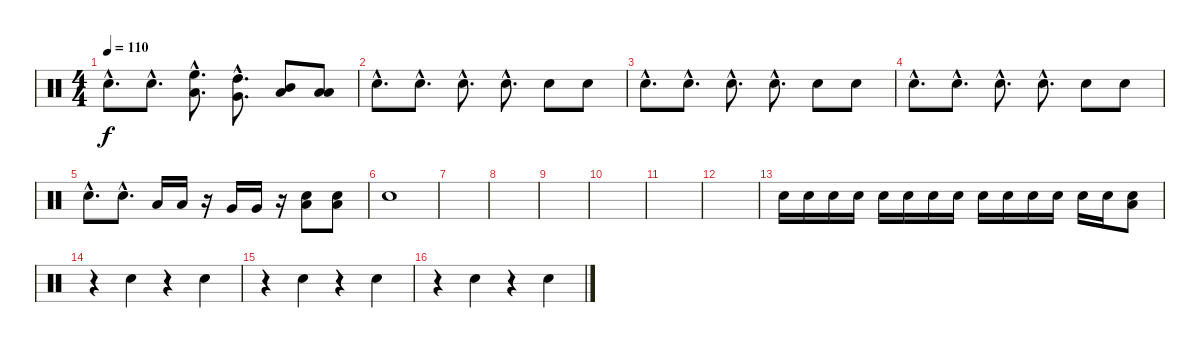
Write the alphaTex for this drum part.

\track "" {instrument percussion}
\staff {score}
\articulation defaults
\ts (4 4)
\tempo 110
\clef neutral
\ks c "Electric Snare (hit)"{hac}.8{d dy f} "Electric Snare (hit)"{hac}.8{d}
("Low Tom (hit)"{hac} "High Floor Tom (hit)"{hac}).8{d} ("Very Low Tom (hit)"{hac} "High Tom (hit)"{hac}).8{d} ("Low Floor Tom (hit)" "Mid Tom (hit)").8 ("Low Floor Tom (hit)" "Low Tom (hit)").8 |
"Electric Snare (hit)"{hac}.8{d} "Electric Snare (hit)"{hac}.8{d} "Electric Snare (hit)"{hac}.8{d} "Electric Snare (hit)"{hac}.8{d} "Electric Snare (hit)".8 "Electric Snare (hit)".8 |
"Electric Snare (hit)"{hac}.8{d} "Electric Snare (hit)"{hac}.8{d} "Electric Snare (hit)"{hac}.8{d} "Electric Snare (hit)"{hac}.8{d} "Electric Snare (hit)".8 "Electric Snare (hit)".8 |
"Electric Snare (hit)"{hac}.8{d} "Electric Snare (hit)"{hac}.8{d} "Electric Snare (hit)"{hac}.8{d} "Electric Snare (hit)"{hac}.8{d} "Electric Snare (hit)".8 "Electric Snare (hit)".8 |
"Electric Snare (hit)"{hac}.8{d} "Electric Snare (hit)"{hac}.8{d} "Low Tom (hit)".16 "Low Tom (hit)".16 r.16 "Very Low Tom (hit)".16 "Very Low Tom (hit)".16 r.16 ("Low Tom (hit)" "Electric Snare (hit)").8 ("Low Tom (hit)" "Electric Snare (hit)").8 |
"Electric Snare (hit)".1 |
|
|
|
|
|
|
"Electric Snare (hit)".16{volume 14} "Electric Snare (hit)".16 "Electric Snare (hit)".16 "Electric Snare (hit)".16 "Electric Snare (hit)".16 "Electric Snare (hit)".16 "Electric Snare (hit)".16 "Electric Snare (hit)".16 "Electric Snare (hit)".16 "Electric Snare (hit)".16 "Electric Snare (hit)".16 "Electric Snare (hit)".16 "Electric Snare (hit)".16 "Electric Snare (hit)".16 ("Low Tom (hit)" "Electric Snare (hit)").8 |
r.4 "Electric Snare (hit)".4 r.4 "Electric Snare (hit)".4 |
r.4 "Electric Snare (hit)".4 r.4 "Electric Snare (hit)".4 |
r.4 "Electric Snare (hit)".4 r.4 "Electric Snare (hit)".4
